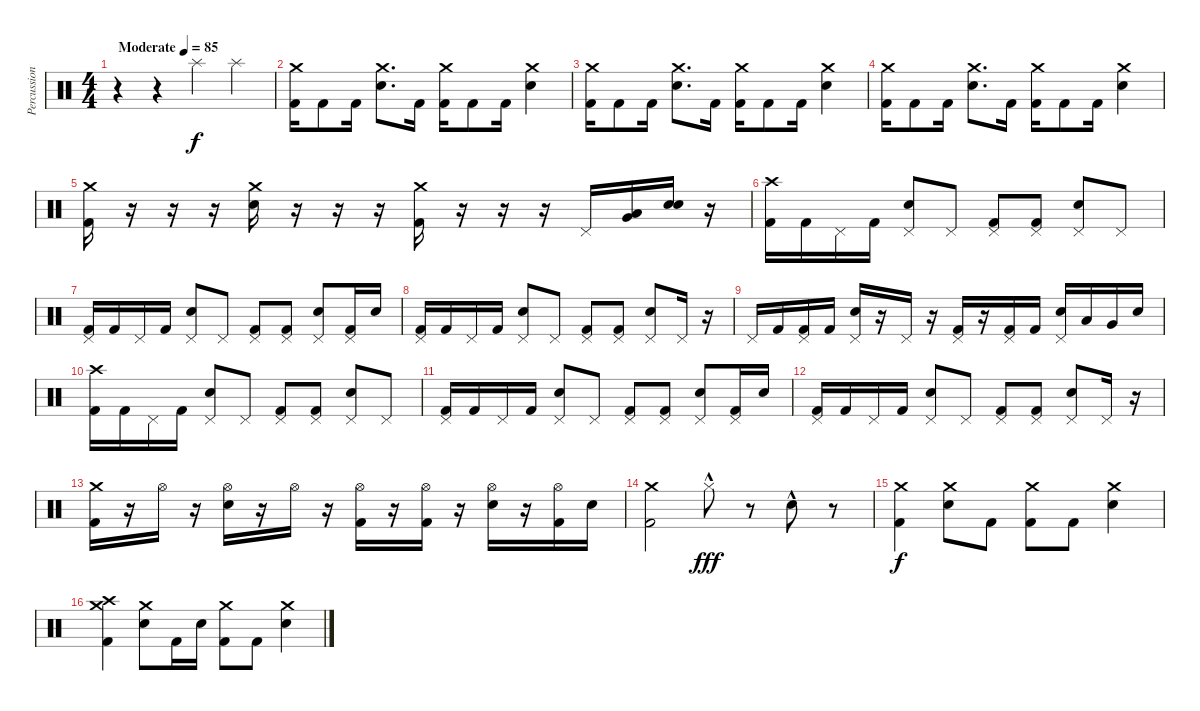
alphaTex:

\track ("Percussions" "Percussion") {instrument percussion}
\staff {score}
\articulation defaults
\ts (4 4)
\tempo (85 "Moderate")
\clef neutral
\ks c
r.4{dy f} r.4 "Splash (hit)".4 "Splash (hit)".4 |
("Kick (hit) 2" "Crash medium (hit)").16 "Kick (hit) 2".8 "Kick (hit) 2".16 ("Electric Snare (hit)" "Crash medium (hit)").8{d} "Kick (hit) 2".16 ("Kick (hit) 2" "Crash medium (hit)").16 "Kick (hit) 2".8 "Kick (hit) 2".16 ("Electric Snare (hit)" "Crash medium (hit)").4 |
("Kick (hit) 2" "Crash medium (hit)").16 "Kick (hit) 2".8 "Kick (hit) 2".16 ("Electric Snare (hit)" "Crash medium (hit)").8{d} "Kick (hit) 2".16 ("Kick (hit) 2" "Crash medium (hit)").16 "Kick (hit) 2".8 "Kick (hit) 2".16 ("Electric Snare (hit)" "Crash medium (hit)").4 |
("Kick (hit) 2" "Crash medium (hit)").16 "Kick (hit) 2".8 "Kick (hit) 2".16 ("Electric Snare (hit)" "Crash medium (hit)").8{d} "Kick (hit) 2".16 ("Kick (hit) 2" "Crash medium (hit)").16 "Kick (hit) 2".8 "Kick (hit) 2".16 ("Electric Snare (hit)" "Crash medium (hit)").4 |
("Kick (hit) 2" "Crash medium (hit)").16 r.16 r.16 r.16 ("Electric Snare (hit)" "Crash medium (hit)").16 r.16 r.16 r.16 ("Kick (hit) 2" "Crash medium (hit)").16 r.16 r.16 r.16 "Pedal Hi-Hat (hit)".16 ("Very Low Tom (hit)" "Low Tom (hit)").16 ("Electric Snare (hit)" "Electric Snare (hit)").16 r.16 |
("Kick (hit) 2" "Crash high (hit)").16 "Kick (hit) 2".16 "Pedal Hi-Hat (hit)".16 "Kick (hit) 2".16 ("Electric Snare (hit)" "Pedal Hi-Hat (hit)").8 "Pedal Hi-Hat (hit)".8 ("Kick (hit) 2" "Pedal Hi-Hat (hit)").8 ("Kick (hit) 2" "Pedal Hi-Hat (hit)").8 ("Electric Snare (hit)" "Pedal Hi-Hat (hit)").8 "Pedal Hi-Hat (hit)".8 |
("Kick (hit) 2" "Pedal Hi-Hat (hit)").16 "Kick (hit) 2".16 "Pedal Hi-Hat (hit)".16 "Kick (hit) 2".16 ("Electric Snare (hit)" "Pedal Hi-Hat (hit)").8 "Pedal Hi-Hat (hit)".8 ("Kick (hit) 2" "Pedal Hi-Hat (hit)").8 ("Kick (hit) 2" "Pedal Hi-Hat (hit)").8 ("Electric Snare (hit)" "Pedal Hi-Hat (hit)").8 ("Kick (hit) 2" "Pedal Hi-Hat (hit)").16 "Electric Snare (hit)".16 |
("Kick (hit) 2" "Pedal Hi-Hat (hit)").16 "Kick (hit) 2".16 "Pedal Hi-Hat (hit)".16 "Kick (hit) 2".16 ("Electric Snare (hit)" "Pedal Hi-Hat (hit)").8 "Pedal Hi-Hat (hit)".8 ("Kick (hit) 2" "Pedal Hi-Hat (hit)").8 ("Kick (hit) 2" "Pedal Hi-Hat (hit)").8 ("Electric Snare (hit)" "Pedal Hi-Hat (hit)").8 "Pedal Hi-Hat (hit)".16 r.16 |
"Pedal Hi-Hat (hit)".16 "Kick (hit) 2".16 ("Kick (hit) 2" "Pedal Hi-Hat (hit)").16 "Kick (hit) 2".16 ("Electric Snare (hit)" "Pedal Hi-Hat (hit)").16 r.16 "Pedal Hi-Hat (hit)".16 r.16 ("Kick (hit) 2" "Pedal Hi-Hat (hit)").16 r.16 ("Kick (hit) 2" "Pedal Hi-Hat (hit)").16 "Kick (hit) 2".16 ("Electric Snare (hit)" "Pedal Hi-Hat (hit)").16 "Low Tom (hit)".16 "Very Low Tom (hit)".16 "Electric Snare (hit)".16 |
("Kick (hit) 2" "Crash high (hit)").16 "Kick (hit) 2".16 "Pedal Hi-Hat (hit)".16 "Kick (hit) 2".16 ("Electric Snare (hit)" "Pedal Hi-Hat (hit)").8 "Pedal Hi-Hat (hit)".8 ("Kick (hit) 2" "Pedal Hi-Hat (hit)").8 ("Kick (hit) 2" "Pedal Hi-Hat (hit)").8 ("Electric Snare (hit)" "Pedal Hi-Hat (hit)").8 "Pedal Hi-Hat (hit)".8 |
("Kick (hit) 2" "Pedal Hi-Hat (hit)").16 "Kick (hit) 2".16 "Pedal Hi-Hat (hit)".16 "Kick (hit) 2".16 ("Electric Snare (hit)" "Pedal Hi-Hat (hit)").8 "Pedal Hi-Hat (hit)".8 ("Kick (hit) 2" "Pedal Hi-Hat (hit)").8 ("Kick (hit) 2" "Pedal Hi-Hat (hit)").8 ("Electric Snare (hit)" "Pedal Hi-Hat (hit)").8 ("Kick (hit) 2" "Pedal Hi-Hat (hit)").16 "Electric Snare (hit)".16 |
("Kick (hit) 2" "Pedal Hi-Hat (hit)").16 "Kick (hit) 2".16 "Pedal Hi-Hat (hit)".16 "Kick (hit) 2".16 ("Electric Snare (hit)" "Pedal Hi-Hat (hit)").8 "Pedal Hi-Hat (hit)".8 ("Kick (hit) 2" "Pedal Hi-Hat (hit)").8 ("Kick (hit) 2" "Pedal Hi-Hat (hit)").8 ("Electric Snare (hit)" "Pedal Hi-Hat (hit)").8 "Pedal Hi-Hat (hit)".16 r.16 |
("Kick (hit) 2" "Crash medium (hit)").16 r.16 "Hi-Hat (open)".16 r.16 ("Electric Snare (hit)" "Hi-Hat (open)").16 r.16 "Hi-Hat (open)".16 r.16 ("Kick (hit) 2" "Hi-Hat (open)").16 r.16 ("Kick (hit) 2" "Hi-Hat (open)").16 r.16 ("Electric Snare (hit)" "Hi-Hat (open)").16 r.16 ("Kick (hit) 2" "Hi-Hat (open)").16 "Electric Snare (hit)".16 |
("Kick (hit) 2" "Crash medium (hit)").2 "Hi-Hat (closed)"{hac}.8{dy fff} r.8 "Electric Snare (hit)"{hac}.8 r.8 |
("Kick (hit) 2" "Crash medium (hit)").4{dy f} ("Electric Snare (hit)" "Crash medium (hit)").8 "Kick (hit) 2".8 ("Kick (hit) 2" "Crash medium (hit)").8 "Kick (hit) 2".8 ("Electric Snare (hit)" "Crash medium (hit)").4 |
("Crash high (hit)" "Kick (hit) 2" "Crash medium (hit)").4 ("Electric Snare (hit)" "Crash medium (hit)").8 "Kick (hit) 2".16 "Electric Snare (hit)".16 ("Kick (hit) 2" "Crash medium (hit)").8 "Kick (hit) 2".8 ("Electric Snare (hit)" "Crash medium (hit)").4
